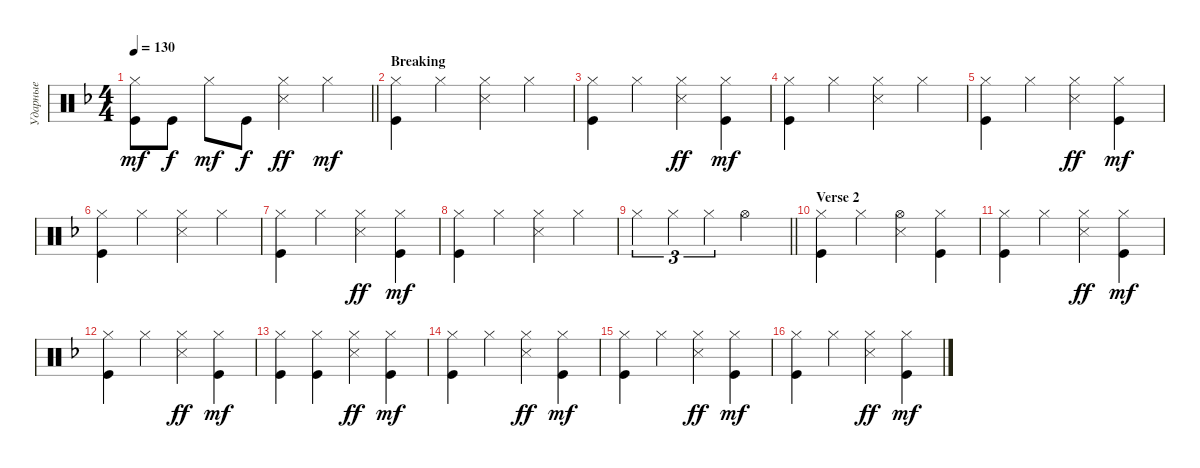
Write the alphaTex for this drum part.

\track ("Ударные" "Ударные") {instrument percussion}
\staff {score}
\articulation defaults
\ts (4 4)
\tempo 130
\clef neutral
\barLineRight lightlight
\ks dminor
("Hi-Hat (closed)" "Kick (hit)").8{dy mf} "Kick (hit)".8{dy f} "Hi-Hat (closed)".8{dy mf} "Kick (hit)".8{dy f} ("Hi-Hat (closed)" "Snare (side stick) 3").4{dy ff} "Hi-Hat (closed)".4{dy mf} |
\section ("" "Breaking")
("Kick (hit)" "Hi-Hat (closed)").4 "Hi-Hat (closed)".4 ("Snare (side stick) 3" "Hi-Hat (closed)").4 "Hi-Hat (closed)".4 |
("Hi-Hat (closed)" "Kick (hit)").4 "Hi-Hat (closed)".4 ("Hi-Hat (closed)" "Snare (side stick) 3").4{dy ff} ("Hi-Hat (closed)" "Kick (hit)").4{dy mf} |
("Kick (hit)" "Hi-Hat (closed)").4 "Hi-Hat (closed)".4 ("Snare (side stick) 3" "Hi-Hat (closed)").4 "Hi-Hat (closed)".4 |
("Hi-Hat (closed)" "Kick (hit)").4 "Hi-Hat (closed)".4 ("Hi-Hat (closed)" "Snare (side stick) 3").4{dy ff} ("Hi-Hat (closed)" "Kick (hit)").4{dy mf} |
("Kick (hit)" "Hi-Hat (closed)").4 "Hi-Hat (closed)".4 ("Snare (side stick) 3" "Hi-Hat (closed)").4 "Hi-Hat (closed)".4 |
("Hi-Hat (closed)" "Kick (hit)").4 "Hi-Hat (closed)".4 ("Hi-Hat (closed)" "Snare (side stick) 3").4{dy ff} ("Hi-Hat (closed)" "Kick (hit)").4{dy mf} |
("Kick (hit)" "Hi-Hat (closed)").4 "Hi-Hat (closed)".4 ("Snare (side stick) 3" "Hi-Hat (closed)").4 "Hi-Hat (closed)".4 |
\barLineRight lightlight "Hi-Hat (closed)".4{tu (3 2)} "Hi-Hat (closed)".4{tu (3 2)} "Hi-Hat (closed)".4{tu (3 2)} "Hi-Hat (open)".2
|
\section ("" "Verse 2")
("Hi-Hat (closed)" "Kick (hit)").4 "Hi-Hat (closed)".4 ("Snare (side stick) 3" "Hi-Hat (open)").4 ("Hi-Hat (closed)" "Kick (hit)").4 |
("Hi-Hat (closed)" "Kick (hit)").4 "Hi-Hat (closed)".4 ("Hi-Hat (closed)" "Snare (side stick) 3").4{dy ff} ("Hi-Hat (closed)" "Kick (hit)").4{dy mf} |
("Hi-Hat (closed)" "Kick (hit)").4 "Hi-Hat (closed)".4 ("Hi-Hat (closed)" "Snare (side stick) 3").4{dy ff} ("Hi-Hat (closed)" "Kick (hit)").4{dy mf} |
("Hi-Hat (closed)" "Kick (hit)").4 ("Hi-Hat (closed)" "Kick (hit)").4 ("Hi-Hat (closed)" "Snare (side stick) 3").4{dy ff} ("Hi-Hat (closed)" "Kick (hit)").4{dy mf} |
("Hi-Hat (closed)" "Kick (hit)").4 "Hi-Hat (closed)".4 ("Hi-Hat (closed)" "Snare (side stick) 3").4{dy ff} ("Hi-Hat (closed)" "Kick (hit)").4{dy mf} |
("Hi-Hat (closed)" "Kick (hit)").4 "Hi-Hat (closed)".4 ("Hi-Hat (closed)" "Snare (side stick) 3").4{dy ff} ("Hi-Hat (closed)" "Kick (hit)").4{dy mf} |
("Hi-Hat (closed)" "Kick (hit)").4 "Hi-Hat (closed)".4 ("Hi-Hat (closed)" "Snare (side stick) 3").4{dy ff} ("Hi-Hat (closed)" "Kick (hit)").4{dy mf}
